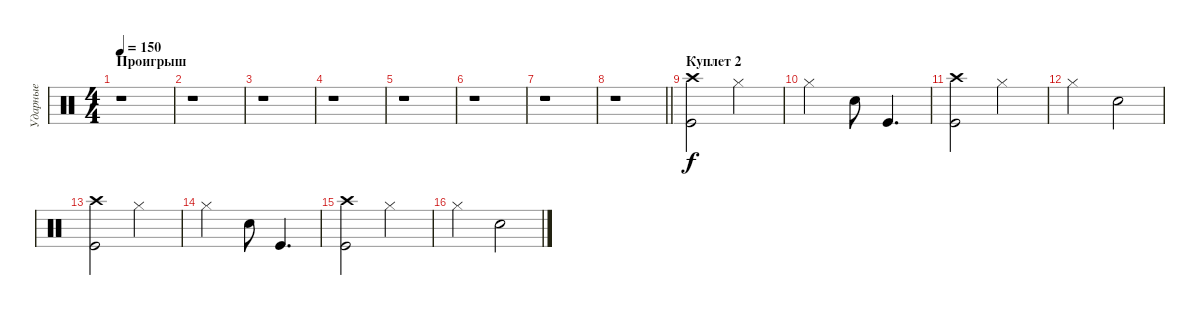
\track ("Ударные" "Ударные") {instrument percussion}
\staff {score}
\articulation defaults
\ts (4 4)
\section ("" "Проигрыш")
\tempo 150
\clef neutral
\ks c
r.1{dy f} |
r.1 |
r.1 |
r.1 |
r.1 |
r.1 |
r.1 |
\barLineRight lightlight
r.1 |
\section ("" "Куплет 2")
("Crash high (hit)" "Kick (hit)").2 "Hi-Hat (closed)".2 |
"Hi-Hat (closed)".2 "Snare (hit) 2".8 "Kick (hit)".4{d} |
("Crash high (hit)" "Kick (hit)").2 "Hi-Hat (closed)".2 |
"Hi-Hat (closed)".2 "Snare (hit) 2".2 |
("Crash high (hit)" "Kick (hit)").2 "Hi-Hat (closed)".2 |
"Hi-Hat (closed)".2 "Snare (hit) 2".8 "Kick (hit)".4{d} |
("Crash high (hit)" "Kick (hit)").2 "Hi-Hat (closed)".2 |
"Hi-Hat (closed)".2 "Snare (hit) 2".2
